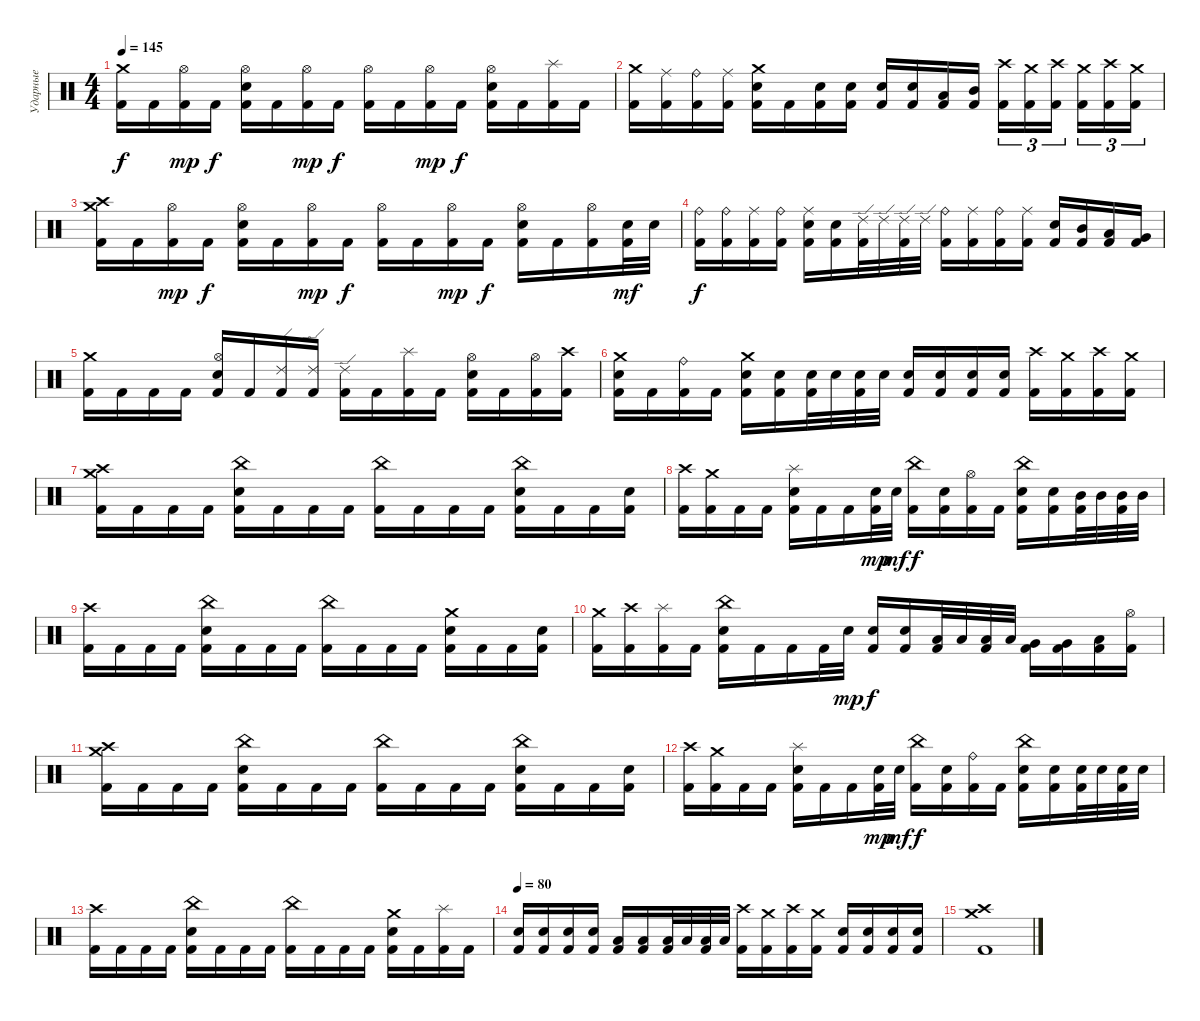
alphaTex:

\track ("Ударные" "Ударные") {instrument percussion}
\staff {score}
\articulation defaults
\ts (4 4)
\tempo 145
\clef neutral
\ks c
("Crash medium (hit)" "Kick (hit) 2").16{dy f} "Kick (hit) 2".16 ("Hi-Hat (open)" "Kick (hit) 2").16{dy mp} "Kick (hit) 2".16{dy f} ("Hi-Hat (open)" "Electric Snare (hit)" "Kick (hit) 2").16 "Kick (hit) 2".16 ("Hi-Hat (open)" "Kick (hit) 2").16{dy mp} "Kick (hit) 2".16{dy f} ("Hi-Hat (open)" "Kick (hit) 2").16 "Kick (hit) 2".16 ("Hi-Hat (open)" "Kick (hit) 2").16{dy mp} "Kick (hit) 2".16{dy f} ("Hi-Hat (open)" "Electric Snare (hit)" "Kick (hit) 2").16 "Kick (hit) 2".16 ("Splash (hit)" "Kick (hit) 2").16 "Kick (hit) 2".16 |
("Crash medium (hit)" "Kick (hit) 2").16 ("Ride (middle)" "Kick (hit) 2").16 ("Ride (bell)" "Kick (hit) 2").16 ("Ride (middle)" "Kick (hit) 2").16 ("Crash medium (hit)" "Electric Snare (hit)" "Kick (hit) 2").16 "Kick (hit) 2".16 ("Electric Snare (hit)" "Kick (hit) 2").16 ("Electric Snare (hit)" "Kick (hit) 2").16 ("Electric Snare (hit)" "Kick (hit) 2").16 ("Electric Snare (hit)" "Kick (hit) 2").16 ("Low Tom (hit)" "Kick (hit) 2").16 ("Mid Tom (hit)" "Kick (hit) 2").16 ("Crash high (hit)" "Kick (hit) 2").16{tu (3 2)} ("Crash medium (hit)" "Kick (hit) 2").16{tu (3 2)} ("Crash high (hit)" "Kick (hit) 2").16{tu (3 2) beam splitsecondary} ("Crash medium (hit)" "Kick (hit) 2").16{tu (3 2)} ("Crash high (hit)" "Kick (hit) 2").16{tu (3 2)} ("Crash medium (hit)" "Kick (hit) 2").16{tu (3 2)} |
("Crash medium (hit)" "Crash high (hit)" "Kick (hit) 2").16 "Kick (hit) 2".16 ("Hi-Hat (open)" "Kick (hit) 2").16{dy mp} "Kick (hit) 2".16{dy f} ("Hi-Hat (open)" "Electric Snare (hit)" "Kick (hit) 2").16 "Kick (hit) 2".16 ("Hi-Hat (open)" "Kick (hit) 2").16{dy mp} "Kick (hit) 2".16{dy f} ("Hi-Hat (open)" "Kick (hit) 2").16 "Kick (hit) 2".16 ("Hi-Hat (open)" "Kick (hit) 2").16{dy mp} "Kick (hit) 2".16{dy f} ("Hi-Hat (open)" "Electric Snare (hit)" "Kick (hit) 2").16 "Kick (hit) 2".16 ("Hi-Hat (open)" "Kick (hit) 2").16 ("Electric Snare (hit)" "Kick (hit) 2").32{dy mf} "Electric Snare (hit)".32 |
("Ride (bell)" "Kick (hit) 2").16{dy f} ("Ride (bell)" "Kick (hit) 2").16 ("Ride (middle)" "Kick (hit) 2").16 ("Ride (bell)" "Kick (hit) 2").16 ("Ride (middle)" "Electric Snare (hit)" "Kick (hit) 2").16 ("Electric Snare (hit)" "Kick (hit) 2").16 ("Ride (edge) 2" "Kick (hit) 2").32 "Ride (edge) 2".32 ("Ride (edge) 2" "Kick (hit) 2").32 "Ride (edge) 2".32 ("Ride (bell)" "Kick (hit) 2").16 ("Ride (middle)" "Kick (hit) 2").16 ("Ride (bell)" "Kick (hit) 2").16 ("Ride (middle)" "Kick (hit) 2").16 ("Electric Snare (hit)" "Kick (hit) 2").16 ("Mid Tom (hit)" "Kick (hit) 2").16 ("Low Tom (hit)" "Kick (hit) 2").16 ("Very Low Tom (hit)" "Kick (hit) 2").16 |
("Crash medium (hit)" "Kick (hit) 2").16 "Kick (hit) 2".16 "Kick (hit) 2".16 "Kick (hit) 2".16 ("Hi-Hat (open)" "Electric Snare (hit)" "Kick (hit) 2").16 "Kick (hit) 2".16 ("Ride (edge) 2" "Kick (hit) 2").16 ("Ride (edge) 2" "Kick (hit) 2").16 ("Ride (edge) 2" "Kick (hit) 2").16 "Kick (hit) 2".16 ("Splash (hit)" "Kick (hit) 2").16 "Kick (hit) 2".16 ("Hi-Hat (open)" "Electric Snare (hit)" "Kick (hit) 2").16 "Kick (hit) 2".16 ("Hi-Hat (open)" "Kick (hit) 2").16 ("Crash high (hit)" "Kick (hit) 2").16 |
("Crash medium (hit)" "Electric Snare (hit)" "Kick (hit) 2").16 "Kick (hit) 2".16 ("Ride (bell)" "Kick (hit) 2").16 "Kick (hit) 2".16 ("Crash medium (hit)" "Electric Snare (hit)" "Kick (hit) 2").16 ("Electric Snare (hit)" "Kick (hit) 2").16 ("Electric Snare (hit)" "Kick (hit) 2").32 "Electric Snare (hit)".32 ("Electric Snare (hit)" "Kick (hit) 2").32 "Electric Snare (hit)".32 ("Electric Snare (hit)" "Kick (hit) 2").16 ("Electric Snare (hit)" "Kick (hit) 2").16 ("Electric Snare (hit)" "Kick (hit) 2").16 ("Electric Snare (hit)" "Kick (hit) 2").16 ("Crash high (hit)" "Kick (hit) 2").16 ("Crash medium (hit)" "Kick (hit) 2").16 ("Crash high (hit)" "Kick (hit) 2").16 ("Crash medium (hit)" "Kick (hit) 2").16 |
("Crash medium (hit)" "Crash high (hit)" "Kick (hit) 2").16 "Kick (hit) 2".16 "Kick (hit) 2".16 "Kick (hit) 2".16 ("China (hit)" "Electric Snare (hit)" "Kick (hit) 2").16 "Kick (hit) 2".16 "Kick (hit) 2".16 "Kick (hit) 2".16 ("China (hit)" "Kick (hit) 2").16 "Kick (hit) 2".16 "Kick (hit) 2".16 "Kick (hit) 2".16 ("China (hit)" "Electric Snare (hit)" "Kick (hit) 2").16 "Kick (hit) 2".16 "Kick (hit) 2".16 ("Electric Snare (hit)" "Kick (hit) 2").16 |
("Crash high (hit)" "Kick (hit) 2").16 ("Crash medium (hit)" "Kick (hit) 2").16 "Kick (hit) 2".16 "Kick (hit) 2".16 ("Splash (hit)" "Electric Snare (hit)" "Kick (hit) 2").16 "Kick (hit) 2".16 "Kick (hit) 2".16 ("Electric Snare (hit)" "Kick (hit) 2").32{dy mp} "Electric Snare (hit)".32{dy mf} ("China (hit)" "Kick (hit) 2").16{dy f} ("Electric Snare (hit)" "Kick (hit) 2").16 ("Hi-Hat (open)" "Kick (hit) 2").16 "Kick (hit) 2".16 ("China (hit)" "Electric Snare (hit)" "Kick (hit) 2").16 ("Electric Snare (hit)" "Kick (hit) 2").16 ("Mid Tom (hit)" "Kick (hit) 2").32 "Mid Tom (hit)".32 ("Mid Tom (hit)" "Kick (hit) 2").32 "Mid Tom (hit)".32 |
("Crash high (hit)" "Kick (hit) 2").16 "Kick (hit) 2".16 "Kick (hit) 2".16 "Kick (hit) 2".16 ("China (hit)" "Electric Snare (hit)" "Kick (hit) 2").16 "Kick (hit) 2".16 "Kick (hit) 2".16 "Kick (hit) 2".16 ("China (hit)" "Kick (hit) 2").16 "Kick (hit) 2".16 "Kick (hit) 2".16 "Kick (hit) 2".16 ("Crash medium (hit)" "Electric Snare (hit)" "Kick (hit) 2").16 "Kick (hit) 2".16 "Kick (hit) 2".16 ("Electric Snare (hit)" "Kick (hit) 2").16 |
("Crash medium (hit)" "Kick (hit) 2").16 ("Crash high (hit)" "Kick (hit) 2").16 ("Splash (hit)" "Kick (hit) 2").16 "Kick (hit) 2".16 ("China (hit)" "Electric Snare (hit)" "Kick (hit) 2").16 "Kick (hit) 2".16 "Kick (hit) 2".16 "Kick (hit) 2".32 "Electric Snare (hit)".32{dy mp} ("Electric Snare (hit)" "Kick (hit) 2").16{dy f} ("Electric Snare (hit)" "Kick (hit) 2").16 ("Low Tom (hit)" "Kick (hit) 2").32 "Low Tom (hit)".32 ("Low Tom (hit)" "Kick (hit) 2").32 "Low Tom (hit)".32 ("Very Low Tom (hit)" "Kick (hit) 2").16 ("Very Low Tom (hit)" "Kick (hit) 2").16 ("Low Floor Tom (hit)" "Kick (hit) 2").16 ("Hi-Hat (open)" "Kick (hit) 2").16 |
("Crash medium (hit)" "Crash high (hit)" "Kick (hit) 2").16 "Kick (hit) 2".16 "Kick (hit) 2".16 "Kick (hit) 2".16 ("China (hit)" "Electric Snare (hit)" "Kick (hit) 2").16 "Kick (hit) 2".16 "Kick (hit) 2".16 "Kick (hit) 2".16 ("China (hit)" "Kick (hit) 2").16 "Kick (hit) 2".16 "Kick (hit) 2".16 "Kick (hit) 2".16 ("China (hit)" "Electric Snare (hit)" "Kick (hit) 2").16 "Kick (hit) 2".16 "Kick (hit) 2".16 ("Electric Snare (hit)" "Kick (hit) 2").16 |
("Crash high (hit)" "Kick (hit) 2").16 ("Crash medium (hit)" "Kick (hit) 2").16 "Kick (hit) 2".16 "Kick (hit) 2".16 ("Splash (hit)" "Electric Snare (hit)" "Kick (hit) 2").16 "Kick (hit) 2".16 "Kick (hit) 2".16 ("Electric Snare (hit)" "Kick (hit) 2").32{dy mp} "Electric Snare (hit)".32{dy mf} ("China (hit)" "Kick (hit) 2").16{dy f} ("Electric Snare (hit)" "Kick (hit) 2").16 ("Ride (bell)" "Kick (hit) 2").16 "Kick (hit) 2".16 ("China (hit)" "Electric Snare (hit)" "Kick (hit) 2").16 ("Electric Snare (hit)" "Kick (hit) 2").16 ("Electric Snare (hit)" "Kick (hit) 2").32 "Electric Snare (hit)".32 ("Electric Snare (hit)" "Kick (hit) 2").32 "Electric Snare (hit)".32 |
("Crash high (hit)" "Kick (hit) 2").16 "Kick (hit) 2".16 "Kick (hit) 2".16 "Kick (hit) 2".16 ("China (hit)" "Electric Snare (hit)" "Kick (hit) 2").16 "Kick (hit) 2".16 "Kick (hit) 2".16 "Kick (hit) 2".16 ("China (hit)" "Kick (hit) 2").16 "Kick (hit) 2".16 "Kick (hit) 2".16 "Kick (hit) 2".16 ("Crash medium (hit)" "Electric Snare (hit)" "Kick (hit) 2").16 "Kick (hit) 2".16 ("Splash (hit)" "Kick (hit) 2").16 "Kick (hit) 2".16 |
\tempo 80
("Electric Snare (hit)" "Kick (hit) 2").16 ("Electric Snare (hit)" "Kick (hit) 2").16 ("Electric Snare (hit)" "Kick (hit) 2").16 ("Electric Snare (hit)" "Kick (hit) 2").16 ("Low Tom (hit)" "Kick (hit) 2").16 ("Low Tom (hit)" "Kick (hit) 2").16 ("Low Tom (hit)" "Kick (hit) 2").32 "Low Tom (hit)".32 ("Low Tom (hit)" "Kick (hit) 2").32 "Low Tom (hit)".32 ("Crash high (hit)" "Kick (hit) 2").16 ("Crash medium (hit)" "Kick (hit) 2").16 ("Crash high (hit)" "Kick (hit) 2").16 ("Crash medium (hit)" "Kick (hit) 2").16 ("Electric Snare (hit)" "Kick (hit) 2").16 ("Electric Snare (hit)" "Kick (hit) 2").16 ("Electric Snare (hit)" "Kick (hit) 2").16 ("Electric Snare (hit)" "Kick (hit) 2").16 |
("Crash high (hit)" "Crash medium (hit)" "Kick (hit) 2").1
